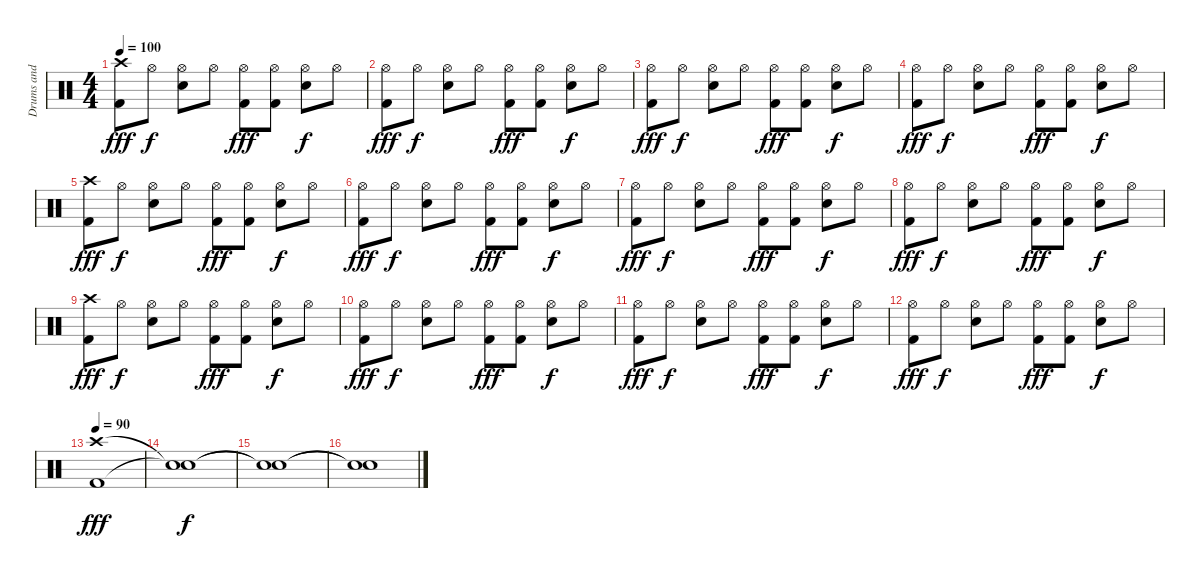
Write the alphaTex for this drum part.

\track ("Drums and Percussion" "Drums and ") {instrument percussion}
\staff {score}
\articulation defaults
\ts (4 4)
\tempo 100
\clef neutral
\ks c
("Crash high (hit)" "Kick (hit) 2").8{dy fff} "Hi-Hat (open)".8{dy f} ("Hi-Hat (open)" "Snare (hit) 2").8 "Hi-Hat (open)".8 ("Hi-Hat (open)" "Kick (hit) 2").8{dy fff} ("Hi-Hat (open)" "Kick (hit) 2").8 ("Hi-Hat (open)" "Snare (hit) 2").8{dy f} "Hi-Hat (open)".8 |
("Hi-Hat (open)" "Kick (hit) 2").8{dy fff} "Hi-Hat (open)".8{dy f} ("Hi-Hat (open)" "Snare (hit) 2").8 "Hi-Hat (open)".8 ("Hi-Hat (open)" "Kick (hit) 2").8{dy fff} ("Hi-Hat (open)" "Kick (hit) 2").8 ("Hi-Hat (open)" "Snare (hit) 2").8{dy f} "Hi-Hat (open)".8 |
("Hi-Hat (open)" "Kick (hit) 2").8{dy fff} "Hi-Hat (open)".8{dy f} ("Hi-Hat (open)" "Snare (hit) 2").8 "Hi-Hat (open)".8 ("Hi-Hat (open)" "Kick (hit) 2").8{dy fff} ("Hi-Hat (open)" "Kick (hit) 2").8 ("Hi-Hat (open)" "Snare (hit) 2").8{dy f} "Hi-Hat (open)".8 |
("Hi-Hat (open)" "Kick (hit) 2").8{dy fff} "Hi-Hat (open)".8{dy f} ("Hi-Hat (open)" "Snare (hit) 2").8 "Hi-Hat (open)".8 ("Hi-Hat (open)" "Kick (hit) 2").8{dy fff} ("Hi-Hat (open)" "Kick (hit) 2").8 ("Hi-Hat (open)" "Snare (hit) 2").8{dy f} "Hi-Hat (open)".8 |
("Crash high (hit)" "Kick (hit) 2").8{dy fff} "Hi-Hat (open)".8{dy f} ("Hi-Hat (open)" "Snare (hit) 2").8 "Hi-Hat (open)".8 ("Hi-Hat (open)" "Kick (hit) 2").8{dy fff} ("Hi-Hat (open)" "Kick (hit) 2").8 ("Hi-Hat (open)" "Snare (hit) 2").8{dy f} "Hi-Hat (open)".8 |
("Hi-Hat (open)" "Kick (hit) 2").8{dy fff} "Hi-Hat (open)".8{dy f} ("Hi-Hat (open)" "Snare (hit) 2").8 "Hi-Hat (open)".8 ("Hi-Hat (open)" "Kick (hit) 2").8{dy fff} ("Hi-Hat (open)" "Kick (hit) 2").8 ("Hi-Hat (open)" "Snare (hit) 2").8{dy f} "Hi-Hat (open)".8 |
("Hi-Hat (open)" "Kick (hit) 2").8{dy fff} "Hi-Hat (open)".8{dy f} ("Hi-Hat (open)" "Snare (hit) 2").8 "Hi-Hat (open)".8 ("Hi-Hat (open)" "Kick (hit) 2").8{dy fff} ("Hi-Hat (open)" "Kick (hit) 2").8 ("Hi-Hat (open)" "Snare (hit) 2").8{dy f} "Hi-Hat (open)".8 |
("Hi-Hat (open)" "Kick (hit) 2").8{dy fff} "Hi-Hat (open)".8{dy f} ("Hi-Hat (open)" "Snare (hit) 2").8 "Hi-Hat (open)".8 ("Hi-Hat (open)" "Kick (hit) 2").8{dy fff} ("Hi-Hat (open)" "Kick (hit) 2").8 ("Hi-Hat (open)" "Snare (hit) 2").8{dy f} "Hi-Hat (open)".8 |
("Crash high (hit)" "Kick (hit) 2").8{dy fff} "Hi-Hat (open)".8{dy f} ("Hi-Hat (open)" "Snare (hit) 2").8 "Hi-Hat (open)".8 ("Hi-Hat (open)" "Kick (hit) 2").8{dy fff} ("Hi-Hat (open)" "Kick (hit) 2").8 ("Hi-Hat (open)" "Snare (hit) 2").8{dy f} "Hi-Hat (open)".8 |
("Hi-Hat (open)" "Kick (hit) 2").8{dy fff} "Hi-Hat (open)".8{dy f} ("Hi-Hat (open)" "Snare (hit) 2").8 "Hi-Hat (open)".8 ("Hi-Hat (open)" "Kick (hit) 2").8{dy fff} ("Hi-Hat (open)" "Kick (hit) 2").8 ("Hi-Hat (open)" "Snare (hit) 2").8{dy f} "Hi-Hat (open)".8 |
("Hi-Hat (open)" "Kick (hit) 2").8{dy fff} "Hi-Hat (open)".8{dy f} ("Hi-Hat (open)" "Snare (hit) 2").8 "Hi-Hat (open)".8 ("Hi-Hat (open)" "Kick (hit) 2").8{dy fff} ("Hi-Hat (open)" "Kick (hit) 2").8 ("Hi-Hat (open)" "Snare (hit) 2").8{dy f} "Hi-Hat (open)".8 |
("Hi-Hat (open)" "Kick (hit) 2").8{dy fff} "Hi-Hat (open)".8{dy f} ("Hi-Hat (open)" "Snare (hit) 2").8 "Hi-Hat (open)".8 ("Hi-Hat (open)" "Kick (hit) 2").8{dy fff} ("Hi-Hat (open)" "Kick (hit) 2").8 ("Hi-Hat (open)" "Snare (hit) 2").8{dy f} "Hi-Hat (open)".8 |
\tempo 90
("Crash high (hit)" "Kick (hit) 2").1{dy fff volume 0} |
("Snare (hit)"{t} "Snare (hit)"{t}).1{dy f} |
("Snare (hit)"{t} "Snare (hit)"{t}).1 |
("Snare (hit)"{t} "Snare (hit)"{t}).1
